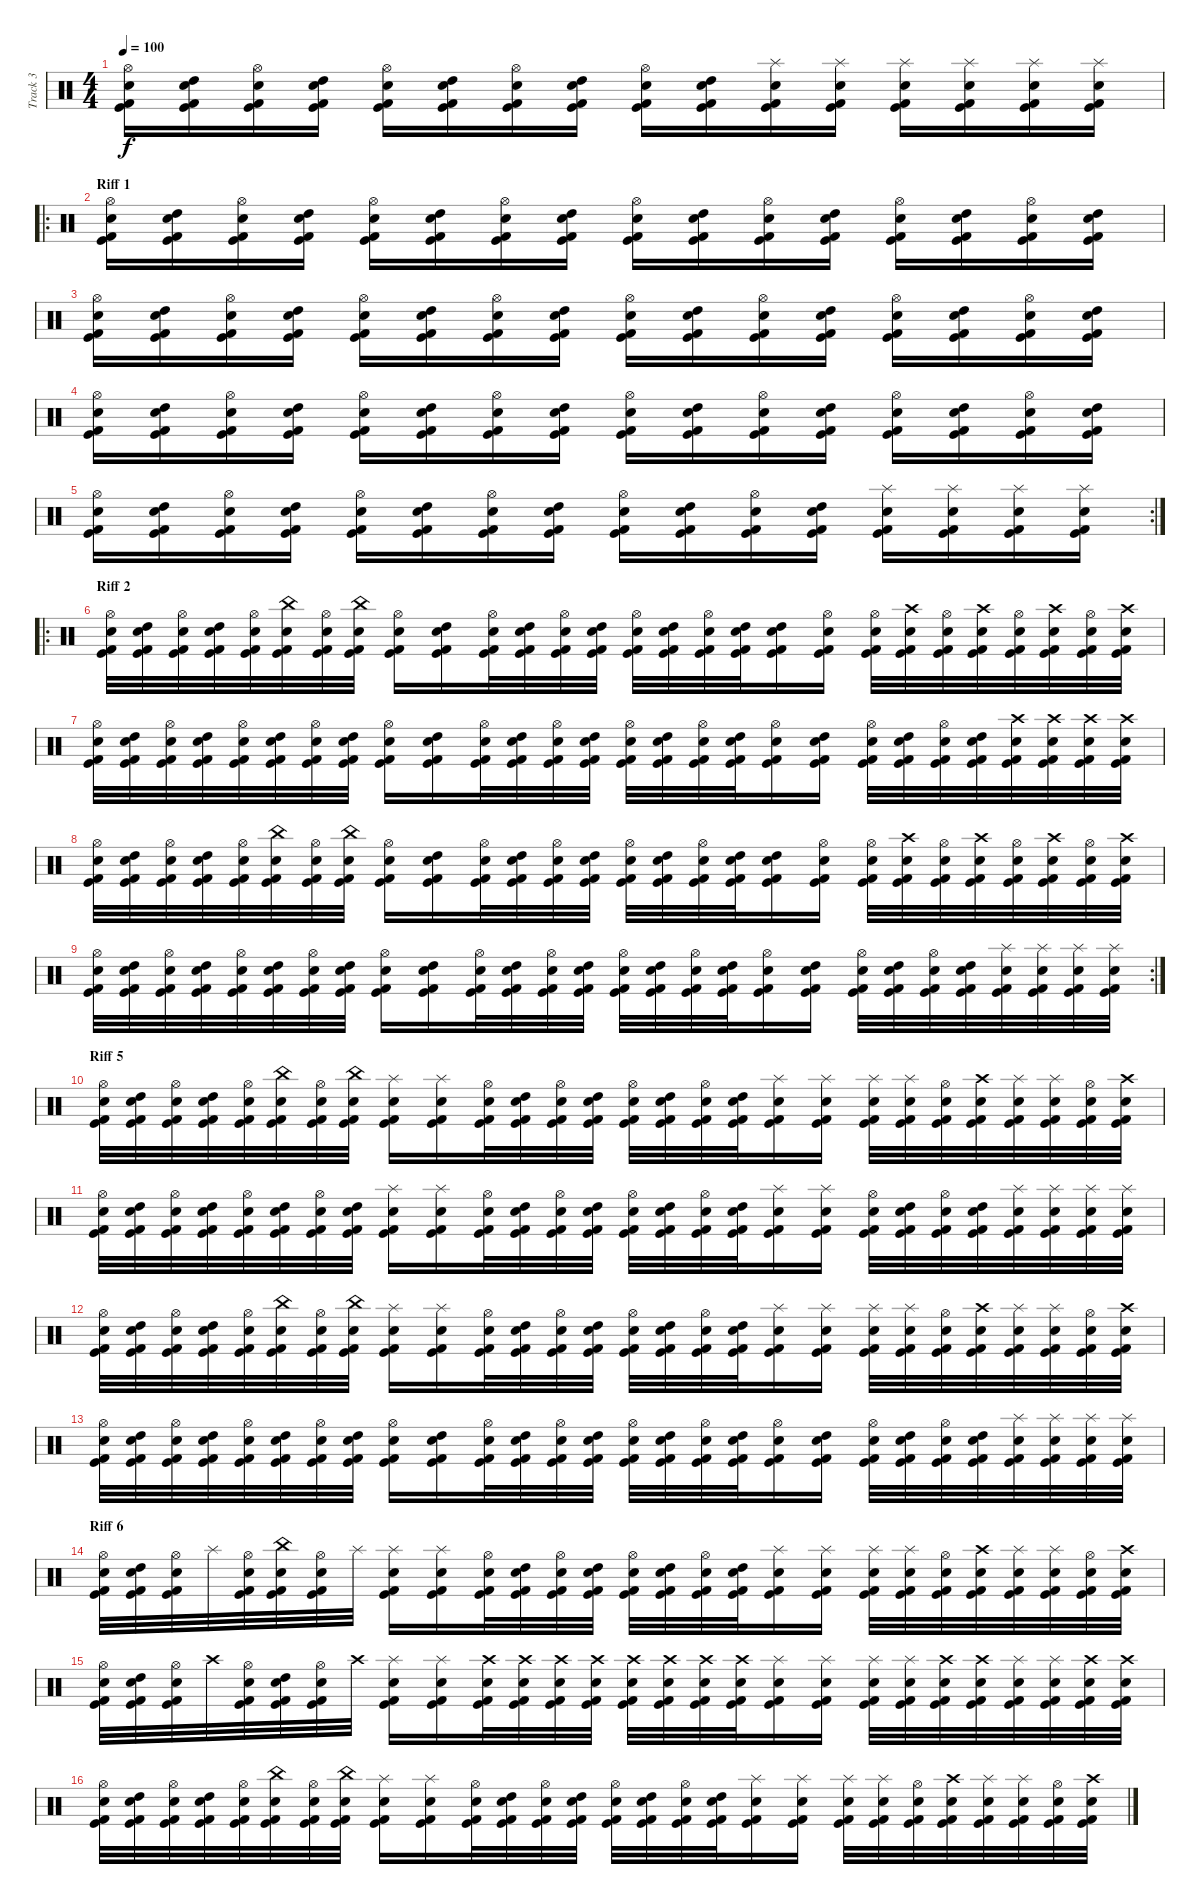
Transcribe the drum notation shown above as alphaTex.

\track ("Track 3" "Track 3") {instrument percussion}
\staff {score}
\articulation defaults
\ts (4 4)
\tempo 100
\clef neutral
\ks c
("Hi-Hat (open)" "Snare (hit) 2" "Kick (hit) 2" "Kick (hit)").16{dy f} ("High Tom (hit)" "Snare (hit) 2" "Kick (hit) 2" "Kick (hit)").16 ("Hi-Hat (open)" "Snare (hit) 2" "Kick (hit) 2" "Kick (hit)").16 ("High Tom (hit)" "Snare (hit) 2" "Kick (hit) 2" "Kick (hit)").16 ("Hi-Hat (open)" "Snare (hit) 2" "Kick (hit) 2" "Kick (hit)").16 ("High Tom (hit)" "Snare (hit) 2" "Kick (hit) 2" "Kick (hit)").16 ("Hi-Hat (open)" "Snare (hit) 2" "Kick (hit) 2" "Kick (hit)").16 ("High Tom (hit)" "Snare (hit) 2" "Kick (hit) 2" "Kick (hit)").16 ("Hi-Hat (open)" "Snare (hit) 2" "Kick (hit) 2" "Kick (hit)").16 ("High Tom (hit)" "Snare (hit) 2" "Kick (hit) 2" "Kick (hit)").16 ("Splash (hit)" "Snare (hit) 2" "Kick (hit) 2" "Kick (hit)").16 ("Splash (hit)" "Snare (hit) 2" "Kick (hit) 2" "Kick (hit)").16 ("Splash (hit)" "Snare (hit) 2" "Kick (hit) 2" "Kick (hit)").16 ("Splash (hit)" "Snare (hit) 2" "Kick (hit) 2" "Kick (hit)").16 ("Splash (hit)" "Snare (hit) 2" "Kick (hit) 2" "Kick (hit)").16 ("Splash (hit)" "Snare (hit) 2" "Kick (hit) 2" "Kick (hit)").16 |
\ro
\section ("" "Riff 1")
("Hi-Hat (open)" "Snare (hit) 2" "Kick (hit) 2" "Kick (hit)").16 ("High Tom (hit)" "Snare (hit) 2" "Kick (hit) 2" "Kick (hit)").16 ("Hi-Hat (open)" "Snare (hit) 2" "Kick (hit) 2" "Kick (hit)").16 ("High Tom (hit)" "Snare (hit) 2" "Kick (hit) 2" "Kick (hit)").16 ("Hi-Hat (open)" "Snare (hit) 2" "Kick (hit) 2" "Kick (hit)").16 ("High Tom (hit)" "Snare (hit) 2" "Kick (hit) 2" "Kick (hit)").16 ("Hi-Hat (open)" "Snare (hit) 2" "Kick (hit) 2" "Kick (hit)").16 ("High Tom (hit)" "Snare (hit) 2" "Kick (hit) 2" "Kick (hit)").16 ("Hi-Hat (open)" "Snare (hit) 2" "Kick (hit) 2" "Kick (hit)").16 ("High Tom (hit)" "Snare (hit) 2" "Kick (hit) 2" "Kick (hit)").16 ("Hi-Hat (open)" "Snare (hit) 2" "Kick (hit) 2" "Kick (hit)").16 ("High Tom (hit)" "Snare (hit) 2" "Kick (hit) 2" "Kick (hit)").16 ("Hi-Hat (open)" "Snare (hit) 2" "Kick (hit) 2" "Kick (hit)").16 ("High Tom (hit)" "Snare (hit) 2" "Kick (hit) 2" "Kick (hit)").16 ("Hi-Hat (open)" "Snare (hit) 2" "Kick (hit) 2" "Kick (hit)").16 ("High Tom (hit)" "Snare (hit) 2" "Kick (hit) 2" "Kick (hit)").16 |
("Hi-Hat (open)" "Snare (hit) 2" "Kick (hit) 2" "Kick (hit)").16 ("High Tom (hit)" "Snare (hit) 2" "Kick (hit) 2" "Kick (hit)").16 ("Hi-Hat (open)" "Snare (hit) 2" "Kick (hit) 2" "Kick (hit)").16 ("High Tom (hit)" "Snare (hit) 2" "Kick (hit) 2" "Kick (hit)").16 ("Hi-Hat (open)" "Snare (hit) 2" "Kick (hit) 2" "Kick (hit)").16 ("High Tom (hit)" "Snare (hit) 2" "Kick (hit) 2" "Kick (hit)").16 ("Hi-Hat (open)" "Snare (hit) 2" "Kick (hit) 2" "Kick (hit)").16 ("High Tom (hit)" "Snare (hit) 2" "Kick (hit) 2" "Kick (hit)").16 ("Hi-Hat (open)" "Snare (hit) 2" "Kick (hit) 2" "Kick (hit)").16 ("High Tom (hit)" "Snare (hit) 2" "Kick (hit) 2" "Kick (hit)").16 ("Hi-Hat (open)" "Snare (hit) 2" "Kick (hit) 2" "Kick (hit)").16 ("High Tom (hit)" "Snare (hit) 2" "Kick (hit) 2" "Kick (hit)").16 ("Hi-Hat (open)" "Snare (hit) 2" "Kick (hit) 2" "Kick (hit)").16 ("High Tom (hit)" "Snare (hit) 2" "Kick (hit) 2" "Kick (hit)").16 ("Hi-Hat (open)" "Snare (hit) 2" "Kick (hit) 2" "Kick (hit)").16 ("High Tom (hit)" "Snare (hit) 2" "Kick (hit) 2" "Kick (hit)").16 |
("Hi-Hat (open)" "Snare (hit) 2" "Kick (hit) 2" "Kick (hit)").16 ("High Tom (hit)" "Snare (hit) 2" "Kick (hit) 2" "Kick (hit)").16 ("Hi-Hat (open)" "Snare (hit) 2" "Kick (hit) 2" "Kick (hit)").16 ("High Tom (hit)" "Snare (hit) 2" "Kick (hit) 2" "Kick (hit)").16 ("Hi-Hat (open)" "Snare (hit) 2" "Kick (hit) 2" "Kick (hit)").16 ("High Tom (hit)" "Snare (hit) 2" "Kick (hit) 2" "Kick (hit)").16 ("Hi-Hat (open)" "Snare (hit) 2" "Kick (hit) 2" "Kick (hit)").16 ("High Tom (hit)" "Snare (hit) 2" "Kick (hit) 2" "Kick (hit)").16 ("Hi-Hat (open)" "Snare (hit) 2" "Kick (hit) 2" "Kick (hit)").16 ("High Tom (hit)" "Snare (hit) 2" "Kick (hit) 2" "Kick (hit)").16 ("Hi-Hat (open)" "Snare (hit) 2" "Kick (hit) 2" "Kick (hit)").16 ("High Tom (hit)" "Snare (hit) 2" "Kick (hit) 2" "Kick (hit)").16 ("Hi-Hat (open)" "Snare (hit) 2" "Kick (hit) 2" "Kick (hit)").16 ("High Tom (hit)" "Snare (hit) 2" "Kick (hit) 2" "Kick (hit)").16 ("Hi-Hat (open)" "Snare (hit) 2" "Kick (hit) 2" "Kick (hit)").16 ("High Tom (hit)" "Snare (hit) 2" "Kick (hit) 2" "Kick (hit)").16 |
\rc 2
("Hi-Hat (open)" "Snare (hit) 2" "Kick (hit) 2" "Kick (hit)").16 ("High Tom (hit)" "Snare (hit) 2" "Kick (hit) 2" "Kick (hit)").16 ("Hi-Hat (open)" "Snare (hit) 2" "Kick (hit) 2" "Kick (hit)").16 ("High Tom (hit)" "Snare (hit) 2" "Kick (hit) 2" "Kick (hit)").16 ("Hi-Hat (open)" "Snare (hit) 2" "Kick (hit) 2" "Kick (hit)").16 ("High Tom (hit)" "Snare (hit) 2" "Kick (hit) 2" "Kick (hit)").16 ("Hi-Hat (open)" "Snare (hit) 2" "Kick (hit) 2" "Kick (hit)").16 ("High Tom (hit)" "Snare (hit) 2" "Kick (hit) 2" "Kick (hit)").16 ("Hi-Hat (open)" "Snare (hit) 2" "Kick (hit) 2" "Kick (hit)").16 ("High Tom (hit)" "Snare (hit) 2" "Kick (hit) 2" "Kick (hit)").16 ("Hi-Hat (open)" "Snare (hit) 2" "Kick (hit) 2" "Kick (hit)").16 ("High Tom (hit)" "Snare (hit) 2" "Kick (hit) 2" "Kick (hit)").16 ("Splash (hit)" "Snare (hit) 2" "Kick (hit) 2" "Kick (hit)").16 ("Splash (hit)" "Snare (hit) 2" "Kick (hit) 2" "Kick (hit)").16 ("Splash (hit)" "Snare (hit) 2" "Kick (hit) 2" "Kick (hit)").16 ("Splash (hit)" "Snare (hit) 2" "Kick (hit) 2" "Kick (hit)").16 |
\ro
\section ("" "Riff 2")
("Hi-Hat (open)" "Snare (hit) 2" "Kick (hit) 2" "Kick (hit)").32 ("High Tom (hit)" "Snare (hit) 2" "Kick (hit) 2" "Kick (hit)").32 ("Hi-Hat (open)" "Snare (hit) 2" "Kick (hit) 2" "Kick (hit)").32 ("High Tom (hit)" "Snare (hit) 2" "Kick (hit) 2" "Kick (hit)").32 ("Hi-Hat (open)" "Snare (hit) 2" "Kick (hit) 2" "Kick (hit)").32 ("China (hit)" "Snare (hit) 2" "Kick (hit) 2" "Kick (hit)").32 ("Hi-Hat (open)" "Snare (hit) 2" "Kick (hit) 2" "Kick (hit)").32 ("China (hit)" "Snare (hit) 2" "Kick (hit) 2" "Kick (hit)").32 ("Hi-Hat (open)" "Snare (hit) 2" "Kick (hit) 2" "Kick (hit)").16 ("High Tom (hit)" "Snare (hit) 2" "Kick (hit) 2" "Kick (hit)").16 ("Hi-Hat (open)" "Snare (hit) 2" "Kick (hit) 2" "Kick (hit)").32 ("High Tom (hit)" "Snare (hit) 2" "Kick (hit) 2" "Kick (hit)").32 ("Hi-Hat (open)" "Snare (hit) 2" "Kick (hit) 2" "Kick (hit)").32 ("High Tom (hit)" "Snare (hit) 2" "Kick (hit) 2" "Kick (hit)").32 ("Hi-Hat (open)" "Snare (hit) 2" "Kick (hit) 2" "Kick (hit)").32 ("High Tom (hit)" "Snare (hit) 2" "Kick (hit) 2" "Kick (hit)").32 ("Hi-Hat (open)" "Snare (hit) 2" "Kick (hit) 2" "Kick (hit)").32 ("High Tom (hit)" "Snare (hit) 2" "Kick (hit) 2" "Kick (hit)").32 ("High Tom (hit)" "Snare (hit) 2" "Kick (hit) 2" "Kick (hit)").16 ("Hi-Hat (open)" "Snare (hit) 2" "Kick (hit) 2" "Kick (hit)").16 ("Hi-Hat (open)" "Snare (hit) 2" "Kick (hit) 2" "Kick (hit)").32 ("Crash high (hit)" "Snare (hit) 2" "Kick (hit) 2" "Kick (hit)").32 ("Hi-Hat (open)" "Snare (hit) 2" "Kick (hit) 2" "Kick (hit)").32 ("Crash high (hit)" "Snare (hit) 2" "Kick (hit) 2" "Kick (hit)").32 ("Hi-Hat (open)" "Snare (hit) 2" "Kick (hit) 2" "Kick (hit)").32 ("Crash high (hit)" "Snare (hit) 2" "Kick (hit) 2" "Kick (hit)").32 ("Hi-Hat (open)" "Snare (hit) 2" "Kick (hit) 2" "Kick (hit)").32 ("Crash high (hit)" "Snare (hit) 2" "Kick (hit) 2" "Kick (hit)").32 |
("Hi-Hat (open)" "Snare (hit) 2" "Kick (hit) 2" "Kick (hit)").32 ("High Tom (hit)" "Snare (hit) 2" "Kick (hit) 2" "Kick (hit)").32 ("Hi-Hat (open)" "Snare (hit) 2" "Kick (hit) 2" "Kick (hit)").32 ("High Tom (hit)" "Snare (hit) 2" "Kick (hit) 2" "Kick (hit)").32 ("Hi-Hat (open)" "Snare (hit) 2" "Kick (hit) 2" "Kick (hit)").32 ("High Tom (hit)" "Snare (hit) 2" "Kick (hit) 2" "Kick (hit)").32 ("Hi-Hat (open)" "Snare (hit) 2" "Kick (hit) 2" "Kick (hit)").32 ("High Tom (hit)" "Snare (hit) 2" "Kick (hit) 2" "Kick (hit)").32 ("Hi-Hat (open)" "Snare (hit) 2" "Kick (hit) 2" "Kick (hit)").16 ("High Tom (hit)" "Snare (hit) 2" "Kick (hit) 2" "Kick (hit)").16 ("Hi-Hat (open)" "Snare (hit) 2" "Kick (hit) 2" "Kick (hit)").32 ("High Tom (hit)" "Snare (hit) 2" "Kick (hit) 2" "Kick (hit)").32 ("Hi-Hat (open)" "Snare (hit) 2" "Kick (hit) 2" "Kick (hit)").32 ("High Tom (hit)" "Snare (hit) 2" "Kick (hit) 2" "Kick (hit)").32 ("Hi-Hat (open)" "Snare (hit) 2" "Kick (hit) 2" "Kick (hit)").32 ("High Tom (hit)" "Snare (hit) 2" "Kick (hit) 2" "Kick (hit)").32 ("Hi-Hat (open)" "Snare (hit) 2" "Kick (hit) 2" "Kick (hit)").32 ("High Tom (hit)" "Snare (hit) 2" "Kick (hit) 2" "Kick (hit)").32 ("Hi-Hat (open)" "Snare (hit) 2" "Kick (hit) 2" "Kick (hit)").16 ("High Tom (hit)" "Snare (hit) 2" "Kick (hit) 2" "Kick (hit)").16 ("Hi-Hat (open)" "Snare (hit) 2" "Kick (hit) 2" "Kick (hit)").32 ("High Tom (hit)" "Snare (hit) 2" "Kick (hit) 2" "Kick (hit)").32 ("Hi-Hat (open)" "Snare (hit) 2" "Kick (hit) 2" "Kick (hit)").32 ("High Tom (hit)" "Snare (hit) 2" "Kick (hit) 2" "Kick (hit)").32 ("Crash high (hit)" "Snare (hit) 2" "Kick (hit) 2" "Kick (hit)").32 ("Crash high (hit)" "Snare (hit) 2" "Kick (hit) 2" "Kick (hit)").32 ("Crash high (hit)" "Snare (hit) 2" "Kick (hit) 2" "Kick (hit)").32 ("Crash high (hit)" "Snare (hit) 2" "Kick (hit) 2" "Kick (hit)").32 |
("Hi-Hat (open)" "Snare (hit) 2" "Kick (hit) 2" "Kick (hit)").32 ("High Tom (hit)" "Snare (hit) 2" "Kick (hit) 2" "Kick (hit)").32 ("Hi-Hat (open)" "Snare (hit) 2" "Kick (hit) 2" "Kick (hit)").32 ("High Tom (hit)" "Snare (hit) 2" "Kick (hit) 2" "Kick (hit)").32 ("Hi-Hat (open)" "Snare (hit) 2" "Kick (hit) 2" "Kick (hit)").32 ("China (hit)" "Snare (hit) 2" "Kick (hit) 2" "Kick (hit)").32 ("Hi-Hat (open)" "Snare (hit) 2" "Kick (hit) 2" "Kick (hit)").32 ("China (hit)" "Snare (hit) 2" "Kick (hit) 2" "Kick (hit)").32 ("Hi-Hat (open)" "Snare (hit) 2" "Kick (hit) 2" "Kick (hit)").16 ("High Tom (hit)" "Snare (hit) 2" "Kick (hit) 2" "Kick (hit)").16 ("Hi-Hat (open)" "Snare (hit) 2" "Kick (hit) 2" "Kick (hit)").32 ("High Tom (hit)" "Snare (hit) 2" "Kick (hit) 2" "Kick (hit)").32 ("Hi-Hat (open)" "Snare (hit) 2" "Kick (hit) 2" "Kick (hit)").32 ("High Tom (hit)" "Snare (hit) 2" "Kick (hit) 2" "Kick (hit)").32 ("Hi-Hat (open)" "Snare (hit) 2" "Kick (hit) 2" "Kick (hit)").32 ("High Tom (hit)" "Snare (hit) 2" "Kick (hit) 2" "Kick (hit)").32 ("Hi-Hat (open)" "Snare (hit) 2" "Kick (hit) 2" "Kick (hit)").32 ("High Tom (hit)" "Snare (hit) 2" "Kick (hit) 2" "Kick (hit)").32 ("High Tom (hit)" "Snare (hit) 2" "Kick (hit) 2" "Kick (hit)").16 ("Hi-Hat (open)" "Snare (hit) 2" "Kick (hit) 2" "Kick (hit)").16 ("Hi-Hat (open)" "Snare (hit) 2" "Kick (hit) 2" "Kick (hit)").32 ("Crash high (hit)" "Snare (hit) 2" "Kick (hit) 2" "Kick (hit)").32 ("Hi-Hat (open)" "Snare (hit) 2" "Kick (hit) 2" "Kick (hit)").32 ("Crash high (hit)" "Snare (hit) 2" "Kick (hit) 2" "Kick (hit)").32 ("Hi-Hat (open)" "Snare (hit) 2" "Kick (hit) 2" "Kick (hit)").32 ("Crash high (hit)" "Snare (hit) 2" "Kick (hit) 2" "Kick (hit)").32 ("Hi-Hat (open)" "Snare (hit) 2" "Kick (hit) 2" "Kick (hit)").32 ("Crash high (hit)" "Snare (hit) 2" "Kick (hit) 2" "Kick (hit)").32 |
\rc 2
("Hi-Hat (open)" "Snare (hit) 2" "Kick (hit) 2" "Kick (hit)").32 ("High Tom (hit)" "Snare (hit) 2" "Kick (hit) 2" "Kick (hit)").32 ("Hi-Hat (open)" "Snare (hit) 2" "Kick (hit) 2" "Kick (hit)").32 ("High Tom (hit)" "Snare (hit) 2" "Kick (hit) 2" "Kick (hit)").32 ("Hi-Hat (open)" "Snare (hit) 2" "Kick (hit) 2" "Kick (hit)").32 ("High Tom (hit)" "Snare (hit) 2" "Kick (hit) 2" "Kick (hit)").32 ("Hi-Hat (open)" "Snare (hit) 2" "Kick (hit) 2" "Kick (hit)").32 ("High Tom (hit)" "Snare (hit) 2" "Kick (hit) 2" "Kick (hit)").32 ("Hi-Hat (open)" "Snare (hit) 2" "Kick (hit) 2" "Kick (hit)").16 ("High Tom (hit)" "Snare (hit) 2" "Kick (hit) 2" "Kick (hit)").16 ("Hi-Hat (open)" "Snare (hit) 2" "Kick (hit) 2" "Kick (hit)").32 ("High Tom (hit)" "Snare (hit) 2" "Kick (hit) 2" "Kick (hit)").32 ("Hi-Hat (open)" "Snare (hit) 2" "Kick (hit) 2" "Kick (hit)").32 ("High Tom (hit)" "Snare (hit) 2" "Kick (hit) 2" "Kick (hit)").32 ("Hi-Hat (open)" "Snare (hit) 2" "Kick (hit) 2" "Kick (hit)").32 ("High Tom (hit)" "Snare (hit) 2" "Kick (hit) 2" "Kick (hit)").32 ("Hi-Hat (open)" "Snare (hit) 2" "Kick (hit) 2" "Kick (hit)").32 ("High Tom (hit)" "Snare (hit) 2" "Kick (hit) 2" "Kick (hit)").32 ("Hi-Hat (open)" "Snare (hit) 2" "Kick (hit) 2" "Kick (hit)").16 ("High Tom (hit)" "Snare (hit) 2" "Kick (hit) 2" "Kick (hit)").16 ("Hi-Hat (open)" "Snare (hit) 2" "Kick (hit) 2" "Kick (hit)").32 ("High Tom (hit)" "Snare (hit) 2" "Kick (hit) 2" "Kick (hit)").32 ("Hi-Hat (open)" "Snare (hit) 2" "Kick (hit) 2" "Kick (hit)").32 ("High Tom (hit)" "Snare (hit) 2" "Kick (hit) 2" "Kick (hit)").32 ("Splash (hit)" "Snare (hit) 2" "Kick (hit) 2" "Kick (hit)").32 ("Splash (hit)" "Snare (hit) 2" "Kick (hit) 2" "Kick (hit)").32 ("Splash (hit)" "Snare (hit) 2" "Kick (hit) 2" "Kick (hit)").32 ("Splash (hit)" "Snare (hit) 2" "Kick (hit) 2" "Kick (hit)").32 |
\section ("" "Riff 5")
("Hi-Hat (open)" "Snare (hit) 2" "Kick (hit) 2" "Kick (hit)").32 ("High Tom (hit)" "Snare (hit) 2" "Kick (hit) 2" "Kick (hit)").32 ("Hi-Hat (open)" "Snare (hit) 2" "Kick (hit) 2" "Kick (hit)").32 ("High Tom (hit)" "Snare (hit) 2" "Kick (hit) 2" "Kick (hit)").32 ("Hi-Hat (open)" "Snare (hit) 2" "Kick (hit) 2" "Kick (hit)").32 ("China (hit)" "Snare (hit) 2" "Kick (hit) 2" "Kick (hit)").32 ("Hi-Hat (open)" "Snare (hit) 2" "Kick (hit) 2" "Kick (hit)").32 ("China (hit)" "Snare (hit) 2" "Kick (hit) 2" "Kick (hit)").32 ("Splash (hit)" "Snare (hit) 2" "Kick (hit) 2" "Kick (hit)").16 ("Splash (hit)" "Snare (hit) 2" "Kick (hit) 2" "Kick (hit)").16 ("Hi-Hat (open)" "Snare (hit) 2" "Kick (hit) 2" "Kick (hit)").32 ("High Tom (hit)" "Snare (hit) 2" "Kick (hit) 2" "Kick (hit)").32 ("Hi-Hat (open)" "Snare (hit) 2" "Kick (hit) 2" "Kick (hit)").32 ("High Tom (hit)" "Snare (hit) 2" "Kick (hit) 2" "Kick (hit)").32 ("Hi-Hat (open)" "Snare (hit) 2" "Kick (hit) 2" "Kick (hit)").32 ("High Tom (hit)" "Snare (hit) 2" "Kick (hit) 2" "Kick (hit)").32 ("Hi-Hat (open)" "Snare (hit) 2" "Kick (hit) 2" "Kick (hit)").32 ("High Tom (hit)" "Snare (hit) 2" "Kick (hit) 2" "Kick (hit)").32 ("Splash (hit)" "Snare (hit) 2" "Kick (hit) 2" "Kick (hit)").16 ("Splash (hit)" "Snare (hit) 2" "Kick (hit) 2" "Kick (hit)").16 ("Splash (hit)" "Snare (hit) 2" "Kick (hit) 2" "Kick (hit)").32 ("Splash (hit)" "Snare (hit) 2" "Kick (hit) 2" "Kick (hit)").32 ("Hi-Hat (open)" "Snare (hit) 2" "Kick (hit) 2" "Kick (hit)").32 ("Crash high (hit)" "Snare (hit) 2" "Kick (hit) 2" "Kick (hit)").32 ("Splash (hit)" "Snare (hit) 2" "Kick (hit) 2" "Kick (hit)").32 ("Splash (hit)" "Snare (hit) 2" "Kick (hit) 2" "Kick (hit)").32 ("Hi-Hat (open)" "Snare (hit) 2" "Kick (hit) 2" "Kick (hit)").32 ("Crash high (hit)" "Snare (hit) 2" "Kick (hit) 2" "Kick (hit)").32 |
("Hi-Hat (open)" "Snare (hit) 2" "Kick (hit) 2" "Kick (hit)").32 ("High Tom (hit)" "Snare (hit) 2" "Kick (hit) 2" "Kick (hit)").32 ("Hi-Hat (open)" "Snare (hit) 2" "Kick (hit) 2" "Kick (hit)").32 ("High Tom (hit)" "Snare (hit) 2" "Kick (hit) 2" "Kick (hit)").32 ("Hi-Hat (open)" "Snare (hit) 2" "Kick (hit) 2" "Kick (hit)").32 ("High Tom (hit)" "Snare (hit) 2" "Kick (hit) 2" "Kick (hit)").32 ("Hi-Hat (open)" "Snare (hit) 2" "Kick (hit) 2" "Kick (hit)").32 ("High Tom (hit)" "Snare (hit) 2" "Kick (hit) 2" "Kick (hit)").32 ("Splash (hit)" "Snare (hit) 2" "Kick (hit) 2" "Kick (hit)").16 ("Splash (hit)" "Snare (hit) 2" "Kick (hit) 2" "Kick (hit)").16 ("Hi-Hat (open)" "Snare (hit) 2" "Kick (hit) 2" "Kick (hit)").32 ("High Tom (hit)" "Snare (hit) 2" "Kick (hit) 2" "Kick (hit)").32 ("Hi-Hat (open)" "Snare (hit) 2" "Kick (hit) 2" "Kick (hit)").32 ("High Tom (hit)" "Snare (hit) 2" "Kick (hit) 2" "Kick (hit)").32 ("Hi-Hat (open)" "Snare (hit) 2" "Kick (hit) 2" "Kick (hit)").32 ("High Tom (hit)" "Snare (hit) 2" "Kick (hit) 2" "Kick (hit)").32 ("Hi-Hat (open)" "Snare (hit) 2" "Kick (hit) 2" "Kick (hit)").32 ("High Tom (hit)" "Snare (hit) 2" "Kick (hit) 2" "Kick (hit)").32 ("Splash (hit)" "Snare (hit) 2" "Kick (hit) 2" "Kick (hit)").16 ("Splash (hit)" "Snare (hit) 2" "Kick (hit) 2" "Kick (hit)").16 ("Hi-Hat (open)" "Snare (hit) 2" "Kick (hit) 2" "Kick (hit)").32 ("High Tom (hit)" "Snare (hit) 2" "Kick (hit) 2" "Kick (hit)").32 ("Hi-Hat (open)" "Snare (hit) 2" "Kick (hit) 2" "Kick (hit)").32 ("High Tom (hit)" "Snare (hit) 2" "Kick (hit) 2" "Kick (hit)").32 ("Splash (hit)" "Snare (hit) 2" "Kick (hit) 2" "Kick (hit)").32 ("Splash (hit)" "Snare (hit) 2" "Kick (hit) 2" "Kick (hit)").32 ("Splash (hit)" "Snare (hit) 2" "Kick (hit) 2" "Kick (hit)").32 ("Splash (hit)" "Snare (hit) 2" "Kick (hit) 2" "Kick (hit)").32 |
("Hi-Hat (open)" "Snare (hit) 2" "Kick (hit) 2" "Kick (hit)").32 ("High Tom (hit)" "Snare (hit) 2" "Kick (hit) 2" "Kick (hit)").32 ("Hi-Hat (open)" "Snare (hit) 2" "Kick (hit) 2" "Kick (hit)").32 ("High Tom (hit)" "Snare (hit) 2" "Kick (hit) 2" "Kick (hit)").32 ("Hi-Hat (open)" "Snare (hit) 2" "Kick (hit) 2" "Kick (hit)").32 ("China (hit)" "Snare (hit) 2" "Kick (hit) 2" "Kick (hit)").32 ("Hi-Hat (open)" "Snare (hit) 2" "Kick (hit) 2" "Kick (hit)").32 ("China (hit)" "Snare (hit) 2" "Kick (hit) 2" "Kick (hit)").32 ("Splash (hit)" "Snare (hit) 2" "Kick (hit) 2" "Kick (hit)").16 ("Splash (hit)" "Snare (hit) 2" "Kick (hit) 2" "Kick (hit)").16 ("Hi-Hat (open)" "Snare (hit) 2" "Kick (hit) 2" "Kick (hit)").32 ("High Tom (hit)" "Snare (hit) 2" "Kick (hit) 2" "Kick (hit)").32 ("Hi-Hat (open)" "Snare (hit) 2" "Kick (hit) 2" "Kick (hit)").32 ("High Tom (hit)" "Snare (hit) 2" "Kick (hit) 2" "Kick (hit)").32 ("Hi-Hat (open)" "Snare (hit) 2" "Kick (hit) 2" "Kick (hit)").32 ("High Tom (hit)" "Snare (hit) 2" "Kick (hit) 2" "Kick (hit)").32 ("Hi-Hat (open)" "Snare (hit) 2" "Kick (hit) 2" "Kick (hit)").32 ("High Tom (hit)" "Snare (hit) 2" "Kick (hit) 2" "Kick (hit)").32 ("Splash (hit)" "Snare (hit) 2" "Kick (hit) 2" "Kick (hit)").16 ("Splash (hit)" "Snare (hit) 2" "Kick (hit) 2" "Kick (hit)").16 ("Splash (hit)" "Snare (hit) 2" "Kick (hit) 2" "Kick (hit)").32 ("Splash (hit)" "Snare (hit) 2" "Kick (hit) 2" "Kick (hit)").32 ("Hi-Hat (open)" "Snare (hit) 2" "Kick (hit) 2" "Kick (hit)").32 ("Crash high (hit)" "Snare (hit) 2" "Kick (hit) 2" "Kick (hit)").32 ("Splash (hit)" "Snare (hit) 2" "Kick (hit) 2" "Kick (hit)").32 ("Splash (hit)" "Snare (hit) 2" "Kick (hit) 2" "Kick (hit)").32 ("Hi-Hat (open)" "Snare (hit) 2" "Kick (hit) 2" "Kick (hit)").32 ("Crash high (hit)" "Snare (hit) 2" "Kick (hit) 2" "Kick (hit)").32 |
("Hi-Hat (open)" "Snare (hit) 2" "Kick (hit) 2" "Kick (hit)").32 ("High Tom (hit)" "Snare (hit) 2" "Kick (hit) 2" "Kick (hit)").32 ("Hi-Hat (open)" "Snare (hit) 2" "Kick (hit) 2" "Kick (hit)").32 ("High Tom (hit)" "Snare (hit) 2" "Kick (hit) 2" "Kick (hit)").32 ("Hi-Hat (open)" "Snare (hit) 2" "Kick (hit) 2" "Kick (hit)").32 ("High Tom (hit)" "Snare (hit) 2" "Kick (hit) 2" "Kick (hit)").32 ("Hi-Hat (open)" "Snare (hit) 2" "Kick (hit) 2" "Kick (hit)").32 ("High Tom (hit)" "Snare (hit) 2" "Kick (hit) 2" "Kick (hit)").32 ("Hi-Hat (open)" "Snare (hit) 2" "Kick (hit) 2" "Kick (hit)").16 ("High Tom (hit)" "Snare (hit) 2" "Kick (hit) 2" "Kick (hit)").16 ("Hi-Hat (open)" "Snare (hit) 2" "Kick (hit) 2" "Kick (hit)").32 ("High Tom (hit)" "Snare (hit) 2" "Kick (hit) 2" "Kick (hit)").32 ("Hi-Hat (open)" "Snare (hit) 2" "Kick (hit) 2" "Kick (hit)").32 ("High Tom (hit)" "Snare (hit) 2" "Kick (hit) 2" "Kick (hit)").32 ("Hi-Hat (open)" "Snare (hit) 2" "Kick (hit) 2" "Kick (hit)").32 ("High Tom (hit)" "Snare (hit) 2" "Kick (hit) 2" "Kick (hit)").32 ("Hi-Hat (open)" "Snare (hit) 2" "Kick (hit) 2" "Kick (hit)").32 ("High Tom (hit)" "Snare (hit) 2" "Kick (hit) 2" "Kick (hit)").32 ("Hi-Hat (open)" "Snare (hit) 2" "Kick (hit) 2" "Kick (hit)").16 ("High Tom (hit)" "Snare (hit) 2" "Kick (hit) 2" "Kick (hit)").16 ("Hi-Hat (open)" "Snare (hit) 2" "Kick (hit) 2" "Kick (hit)").32 ("High Tom (hit)" "Snare (hit) 2" "Kick (hit) 2" "Kick (hit)").32 ("Hi-Hat (open)" "Snare (hit) 2" "Kick (hit) 2" "Kick (hit)").32 ("High Tom (hit)" "Snare (hit) 2" "Kick (hit) 2" "Kick (hit)").32 ("Splash (hit)" "Snare (hit) 2" "Kick (hit) 2" "Kick (hit)").32 ("Splash (hit)" "Snare (hit) 2" "Kick (hit) 2" "Kick (hit)").32 ("Splash (hit)" "Snare (hit) 2" "Kick (hit) 2" "Kick (hit)").32 ("Splash (hit)" "Snare (hit) 2" "Kick (hit) 2" "Kick (hit)").32 |
\section ("" "Riff 6")
("Hi-Hat (open)" "Snare (hit) 2" "Kick (hit) 2" "Kick (hit)").32 ("High Tom (hit)" "Snare (hit) 2" "Kick (hit) 2" "Kick (hit)").32 ("Hi-Hat (open)" "Snare (hit) 2" "Kick (hit) 2" "Kick (hit)").32 "Splash (hit)".32 ("Hi-Hat (open)" "Snare (hit) 2" "Kick (hit) 2" "Kick (hit)").32 ("China (hit)" "Snare (hit) 2" "Kick (hit) 2" "Kick (hit)").32 ("Hi-Hat (open)" "Snare (hit) 2" "Kick (hit) 2" "Kick (hit)").32 "Splash (hit)".32 ("Splash (hit)" "Snare (hit) 2" "Kick (hit) 2" "Kick (hit)").16 ("Splash (hit)" "Snare (hit) 2" "Kick (hit) 2" "Kick (hit)").16 ("Hi-Hat (open)" "Snare (hit) 2" "Kick (hit) 2" "Kick (hit)").32 ("High Tom (hit)" "Snare (hit) 2" "Kick (hit) 2" "Kick (hit)").32 ("Hi-Hat (open)" "Snare (hit) 2" "Kick (hit) 2" "Kick (hit)").32 ("High Tom (hit)" "Snare (hit) 2" "Kick (hit) 2" "Kick (hit)").32 ("Hi-Hat (open)" "Snare (hit) 2" "Kick (hit) 2" "Kick (hit)").32 ("High Tom (hit)" "Snare (hit) 2" "Kick (hit) 2" "Kick (hit)").32 ("Hi-Hat (open)" "Snare (hit) 2" "Kick (hit) 2" "Kick (hit)").32 ("High Tom (hit)" "Snare (hit) 2" "Kick (hit) 2" "Kick (hit)").32 ("Splash (hit)" "Snare (hit) 2" "Kick (hit) 2" "Kick (hit)").16 ("Splash (hit)" "Snare (hit) 2" "Kick (hit) 2" "Kick (hit)").16 ("Splash (hit)" "Snare (hit) 2" "Kick (hit) 2" "Kick (hit)").32 ("Splash (hit)" "Snare (hit) 2" "Kick (hit) 2" "Kick (hit)").32 ("Hi-Hat (open)" "Snare (hit) 2" "Kick (hit) 2" "Kick (hit)").32 ("Crash high (hit)" "Snare (hit) 2" "Kick (hit) 2" "Kick (hit)").32 ("Splash (hit)" "Snare (hit) 2" "Kick (hit) 2" "Kick (hit)").32 ("Splash (hit)" "Snare (hit) 2" "Kick (hit) 2" "Kick (hit)").32 ("Hi-Hat (open)" "Snare (hit) 2" "Kick (hit) 2" "Kick (hit)").32 ("Crash high (hit)" "Snare (hit) 2" "Kick (hit) 2" "Kick (hit)").32 |
("Hi-Hat (open)" "Snare (hit) 2" "Kick (hit) 2" "Kick (hit)").32 ("High Tom (hit)" "Snare (hit) 2" "Kick (hit) 2" "Kick (hit)").32 ("Hi-Hat (open)" "Snare (hit) 2" "Kick (hit) 2" "Kick (hit)").32 "Crash high (hit)".32 ("Hi-Hat (open)" "Snare (hit) 2" "Kick (hit) 2" "Kick (hit)").32 ("High Tom (hit)" "Snare (hit) 2" "Kick (hit) 2" "Kick (hit)").32 ("Hi-Hat (open)" "Snare (hit) 2" "Kick (hit) 2" "Kick (hit)").32 "Crash high (hit)".32 ("Splash (hit)" "Snare (hit) 2" "Kick (hit) 2" "Kick (hit)").16 ("Splash (hit)" "Snare (hit) 2" "Kick (hit) 2" "Kick (hit)").16 ("Crash high (hit)" "Snare (hit) 2" "Kick (hit) 2" "Kick (hit)").32 ("Crash high (hit)" "Snare (hit) 2" "Kick (hit) 2" "Kick (hit)").32 ("Crash high (hit)" "Snare (hit) 2" "Kick (hit) 2" "Kick (hit)").32 ("Crash high (hit)" "Snare (hit) 2" "Kick (hit) 2" "Kick (hit)").32 ("Crash high (hit)" "Snare (hit) 2" "Kick (hit) 2" "Kick (hit)").32 ("Crash high (hit)" "Snare (hit) 2" "Kick (hit) 2" "Kick (hit)").32 ("Crash high (hit)" "Snare (hit) 2" "Kick (hit) 2" "Kick (hit)").32 ("Crash high (hit)" "Snare (hit) 2" "Kick (hit) 2" "Kick (hit)").32 ("Splash (hit)" "Snare (hit) 2" "Kick (hit) 2" "Kick (hit)").16 ("Splash (hit)" "Snare (hit) 2" "Kick (hit) 2" "Kick (hit)").16 ("Splash (hit)" "Snare (hit) 2" "Kick (hit) 2" "Kick (hit)").32 ("Splash (hit)" "Snare (hit) 2" "Kick (hit) 2" "Kick (hit)").32 ("Crash high (hit)" "Snare (hit) 2" "Kick (hit) 2" "Kick (hit)").32 ("Crash high (hit)" "Snare (hit) 2" "Kick (hit) 2" "Kick (hit)").32 ("Splash (hit)" "Snare (hit) 2" "Kick (hit) 2" "Kick (hit)").32 ("Splash (hit)" "Snare (hit) 2" "Kick (hit) 2" "Kick (hit)").32 ("Crash high (hit)" "Snare (hit) 2" "Kick (hit) 2" "Kick (hit)").32 ("Crash high (hit)" "Snare (hit) 2" "Kick (hit) 2" "Kick (hit)").32 |
("Hi-Hat (open)" "Snare (hit) 2" "Kick (hit) 2" "Kick (hit)").32 ("High Tom (hit)" "Snare (hit) 2" "Kick (hit) 2" "Kick (hit)").32 ("Hi-Hat (open)" "Snare (hit) 2" "Kick (hit) 2" "Kick (hit)").32 ("High Tom (hit)" "Snare (hit) 2" "Kick (hit) 2" "Kick (hit)").32 ("Hi-Hat (open)" "Snare (hit) 2" "Kick (hit) 2" "Kick (hit)").32 ("China (hit)" "Snare (hit) 2" "Kick (hit) 2" "Kick (hit)").32 ("Hi-Hat (open)" "Snare (hit) 2" "Kick (hit) 2" "Kick (hit)").32 ("China (hit)" "Snare (hit) 2" "Kick (hit) 2" "Kick (hit)").32 ("Splash (hit)" "Snare (hit) 2" "Kick (hit) 2" "Kick (hit)").16 ("Splash (hit)" "Snare (hit) 2" "Kick (hit) 2" "Kick (hit)").16 ("Hi-Hat (open)" "Snare (hit) 2" "Kick (hit) 2" "Kick (hit)").32 ("High Tom (hit)" "Snare (hit) 2" "Kick (hit) 2" "Kick (hit)").32 ("Hi-Hat (open)" "Snare (hit) 2" "Kick (hit) 2" "Kick (hit)").32 ("High Tom (hit)" "Snare (hit) 2" "Kick (hit) 2" "Kick (hit)").32 ("Hi-Hat (open)" "Snare (hit) 2" "Kick (hit) 2" "Kick (hit)").32 ("High Tom (hit)" "Snare (hit) 2" "Kick (hit) 2" "Kick (hit)").32 ("Hi-Hat (open)" "Snare (hit) 2" "Kick (hit) 2" "Kick (hit)").32 ("High Tom (hit)" "Snare (hit) 2" "Kick (hit) 2" "Kick (hit)").32 ("Splash (hit)" "Snare (hit) 2" "Kick (hit) 2" "Kick (hit)").16 ("Splash (hit)" "Snare (hit) 2" "Kick (hit) 2" "Kick (hit)").16 ("Splash (hit)" "Snare (hit) 2" "Kick (hit) 2" "Kick (hit)").32 ("Splash (hit)" "Snare (hit) 2" "Kick (hit) 2" "Kick (hit)").32 ("Hi-Hat (open)" "Snare (hit) 2" "Kick (hit) 2" "Kick (hit)").32 ("Crash high (hit)" "Snare (hit) 2" "Kick (hit) 2" "Kick (hit)").32 ("Splash (hit)" "Snare (hit) 2" "Kick (hit) 2" "Kick (hit)").32 ("Splash (hit)" "Snare (hit) 2" "Kick (hit) 2" "Kick (hit)").32 ("Hi-Hat (open)" "Snare (hit) 2" "Kick (hit) 2" "Kick (hit)").32 ("Crash high (hit)" "Snare (hit) 2" "Kick (hit) 2" "Kick (hit)").32
